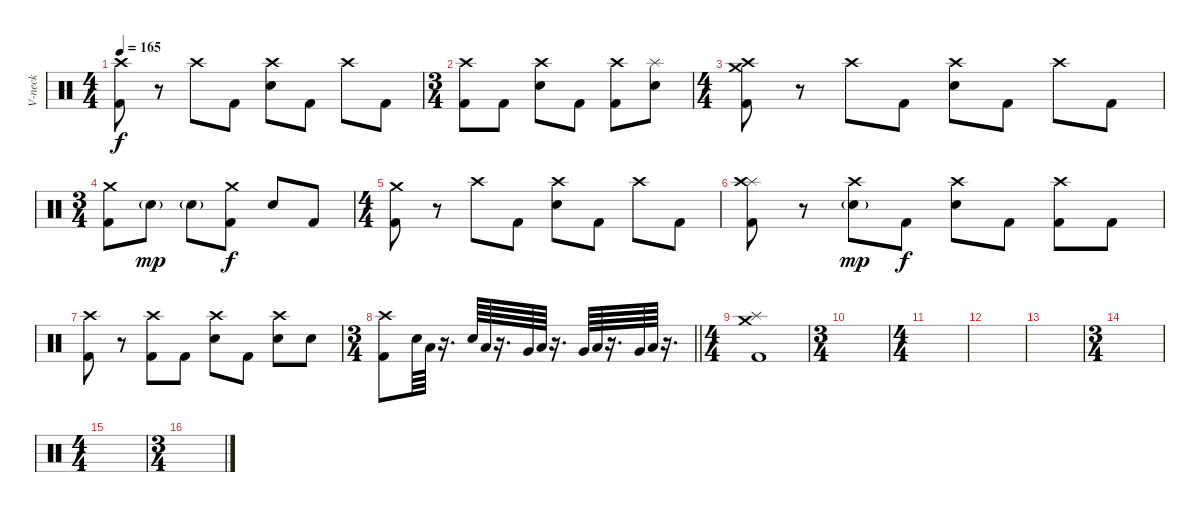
\track ("V-neck" "V-neck") {instrument percussion}
\staff {score}
\articulation defaults
\ts (4 4)
\tempo 165
\clef neutral
\ks c
("Crash high (hit)" "Kick (hit) 2").8{dy f} r.8 "Crash high (hit)".8 "Kick (hit) 2".8 ("Crash high (hit)" "Electric Snare (hit)").8 "Kick (hit) 2".8 "Crash high (hit)".8 "Kick (hit) 2".8 |
\ts (3 4)
("Crash high (hit)" "Kick (hit) 2").8 "Kick (hit) 2".8 ("Crash high (hit)" "Electric Snare (hit)").8 "Kick (hit) 2".8 ("Crash high (hit)" "Kick (hit) 2").8 ("Splash (hit)" "Electric Snare (hit)").8 |
\ts (4 4)
("Crash medium (hit)" "Crash high (hit)" "Kick (hit) 2").8 r.8 "Crash high (hit)".8 "Kick (hit) 2".8 ("Crash high (hit)" "Electric Snare (hit)").8 "Kick (hit) 2".8 "Crash high (hit)".8 "Kick (hit) 2".8 |
\ts (3 4)
("Crash medium (hit)" "Kick (hit) 2").8 "Electric Snare (hit)"{g}.8{dy mp} "Electric Snare (hit)"{g}.8 ("Crash medium (hit)" "Kick (hit) 2").8{dy f} "Electric Snare (hit)".8 "Kick (hit) 2".8 |
\ts (4 4)
("Crash medium (hit)" "Kick (hit) 2").8 r.8 "Crash high (hit)".8 "Kick (hit) 2".8 ("Crash high (hit)" "Electric Snare (hit)").8 "Kick (hit) 2".8 "Crash high (hit)".8 "Kick (hit) 2".8 |
("Splash (hit)" "Crash high (hit)" "Kick (hit) 2").8 r.8 ("Crash high (hit)" "Electric Snare (hit)"{g}).8{dy mp} "Kick (hit) 2".8{dy f} ("Crash high (hit)" "Electric Snare (hit)").8 "Kick (hit) 2".8 ("Crash high (hit)" "Kick (hit) 2").8 "Kick (hit) 2".8 |
("Crash high (hit)" "Kick (hit) 2").8 r.8 ("Crash high (hit)" "Kick (hit) 2").8 "Kick (hit) 2".8 ("Crash high (hit)" "Electric Snare (hit)").8 "Kick (hit) 2".8 ("Crash high (hit)" "Electric Snare (hit)").8 "Electric Snare (hit)".8 |
\ts (3 4)
\barLineRight lightlight
("Crash high (hit)" "Kick (hit) 2").8 "Electric Snare (hit)".64 "Low Tom (hit)".64 r.16{d} "Electric Snare (hit)".64 "Low Tom (hit)".64 r.16{d} "Very Low Tom (hit)".64 "Low Tom (hit)".64 r.16{d} "Very Low Tom (hit)".64 "Low Tom (hit)".64 r.16{d} "Very Low Tom (hit)".64 "Low Tom (hit)".64 r.16{d} |
\ts (4 4)
\section ("" "")
("Crash medium (hit)" "Splash (hit)" "Kick (hit) 2").1 |
\ts (3 4)
|
\ts (4 4)
|
|
|
\ts (3 4)
|
\ts (4 4)
|
\ts (3 4)
